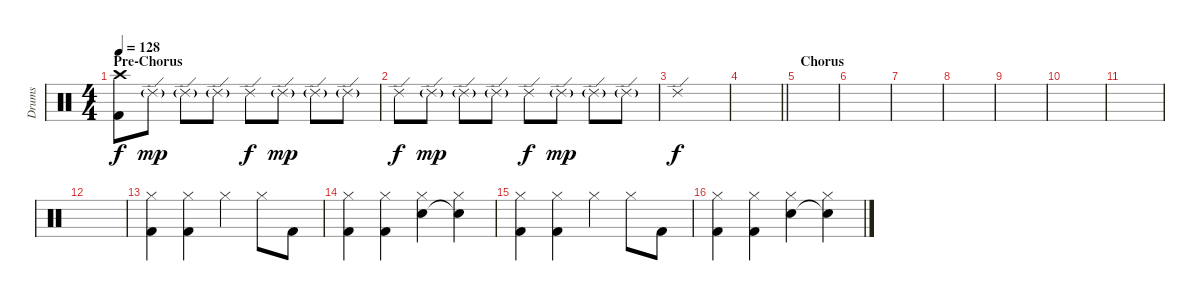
\track ("Drums" "Drums") {instrument percussion}
\staff {score}
\articulation defaults
\ts (4 4)
\section ("" "Pre-Chorus")
\tempo 128
\clef neutral
\ks c
("Kick (hit) 2" "Crash high (hit)").8{dy f} "Ride (edge) 2"{g}.8{dy mp} "Ride (edge) 2"{g}.8 "Ride (edge) 2"{g}.8 "Ride (edge) 2".8{dy f} "Ride (edge) 2"{g}.8{dy mp} "Ride (edge) 2"{g}.8 "Ride (edge) 2"{g}.8 |
"Ride (edge) 2".8{dy f} "Ride (edge) 2"{g}.8{dy mp} "Ride (edge) 2"{g}.8 "Ride (edge) 2"{g}.8 "Ride (edge) 2".8{dy f} "Ride (edge) 2"{g}.8{dy mp} "Ride (edge) 2"{g}.8 "Ride (edge) 2"{g}.8 |
"Ride (edge) 2".1{dy f} |
\barLineRight lightlight
|
\section ("" "Chorus")
|
|
|
|
|
|
|
|
("Kick (hit) 2" "Hi-Hat (closed)").4 ("Kick (hit) 2" "Hi-Hat (closed)").4 "Hi-Hat (closed)".4 "Hi-Hat (closed)".8 "Kick (hit) 2".8 |
("Kick (hit) 2" "Hi-Hat (closed)").4 ("Kick (hit) 2" "Hi-Hat (closed)").4 ("Electric Snare (hit)" "Hi-Hat (closed)").4 ("Snare (hit)"{t} "Hi-Hat (closed)").4 |
("Kick (hit) 2" "Hi-Hat (closed)").4 ("Kick (hit) 2" "Hi-Hat (closed)").4 "Hi-Hat (closed)".4 "Hi-Hat (closed)".8 "Kick (hit) 2".8 |
("Kick (hit) 2" "Hi-Hat (closed)").4 ("Kick (hit) 2" "Hi-Hat (closed)").4 ("Electric Snare (hit)" "Hi-Hat (closed)").4 ("Snare (hit)"{t} "Hi-Hat (closed)").4
